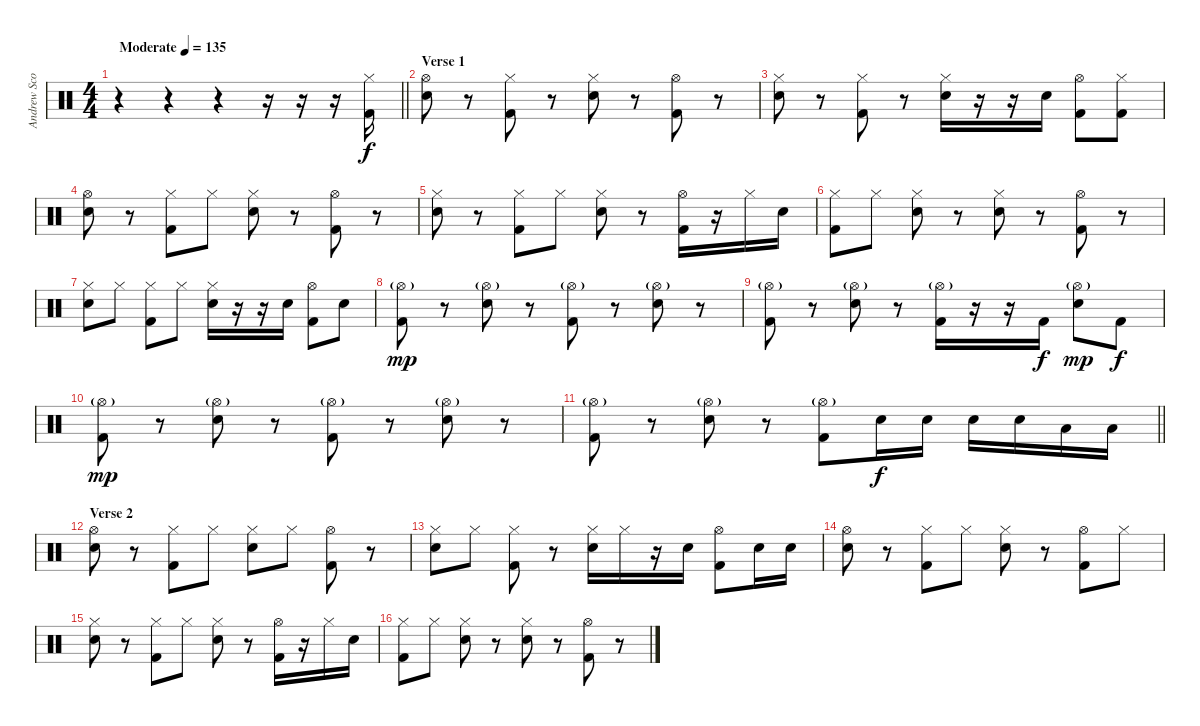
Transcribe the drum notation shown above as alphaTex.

\track ("Andrew Scott" "Andrew Sco") {instrument percussion}
\staff {score}
\articulation defaults
\ts (4 4)
\tempo (135 "Moderate")
\clef neutral
\barLineRight lightlight
\ks c
r.4{dy f} r.4 r.4 r.16 r.16 r.16 ("Hi-Hat (closed)" "Kick (hit) 2").16 |
\section ("" "Verse 1")
("Hi-Hat (open)" "Snare (hit) 2").8 r.8 ("Hi-Hat (closed)" "Kick (hit) 2").8 r.8 ("Hi-Hat (closed)" "Snare (hit) 2").8 r.8 ("Hi-Hat (open)" "Kick (hit) 2").8 r.8 |
("Hi-Hat (closed)" "Snare (hit) 2").8 r.8 ("Hi-Hat (closed)" "Kick (hit) 2").8 r.8 ("Hi-Hat (closed)" "Snare (hit) 2").16 r.16 r.16 "Snare (hit) 2".16 ("Hi-Hat (open)" "Kick (hit) 2").8 ("Hi-Hat (closed)" "Kick (hit) 2").8 |
("Hi-Hat (open)" "Snare (hit) 2").8 r.8 ("Hi-Hat (closed)" "Kick (hit) 2").8 "Hi-Hat (closed)".8 ("Hi-Hat (closed)" "Snare (hit) 2").8 r.8 ("Hi-Hat (open)" "Kick (hit) 2").8 r.8 |
("Hi-Hat (closed)" "Snare (hit) 2").8 r.8 ("Hi-Hat (closed)" "Kick (hit) 2").8 "Hi-Hat (closed)".8 ("Hi-Hat (closed)" "Snare (hit) 2").8 r.8 ("Hi-Hat (open)" "Kick (hit) 2").16 r.16 "Hi-Hat (closed)".16 "Snare (hit) 2".16 |
("Hi-Hat (closed)" "Kick (hit) 2").8 "Hi-Hat (closed)".8 ("Hi-Hat (closed)" "Snare (hit) 2").8 r.8 ("Hi-Hat (closed)" "Snare (hit) 2").8 r.8 ("Hi-Hat (open)" "Kick (hit) 2").8 r.8 |
("Hi-Hat (closed)" "Snare (hit) 2").8 "Hi-Hat (closed)".8 ("Hi-Hat (closed)" "Kick (hit) 2").8 "Hi-Hat (closed)".8 ("Hi-Hat (closed)" "Snare (hit) 2").16 r.16 r.16 "Snare (hit) 2".16 ("Hi-Hat (open)" "Kick (hit) 2").8 "Snare (hit) 2".8 |
("Hi-Hat (open)"{g} "Kick (hit) 2").8{dy mp} r.8 ("Hi-Hat (open)"{g} "Snare (hit) 2").8 r.8 ("Hi-Hat (open)"{g} "Kick (hit) 2").8 r.8 ("Hi-Hat (open)"{g} "Snare (hit) 2").8 r.8 |
("Hi-Hat (open)"{g} "Kick (hit) 2").8 r.8 ("Hi-Hat (open)"{g} "Snare (hit) 2").8 r.8 ("Hi-Hat (open)"{g} "Kick (hit) 2").16 r.16 r.16 "Kick (hit) 2".16{dy f} ("Hi-Hat (open)"{g} "Snare (hit) 2").8{dy mp} "Kick (hit) 2".8{dy f} |
("Hi-Hat (open)"{g} "Kick (hit) 2").8{dy mp} r.8 ("Hi-Hat (open)"{g} "Snare (hit) 2").8 r.8 ("Hi-Hat (open)"{g} "Kick (hit) 2").8 r.8 ("Hi-Hat (open)"{g} "Snare (hit) 2").8 r.8 |
\barLineRight lightlight
("Hi-Hat (open)"{g} "Kick (hit) 2").8 r.8 ("Hi-Hat (open)"{g} "Snare (hit) 2").8 r.8 ("Hi-Hat (open)"{g} "Kick (hit) 2").8 "Snare (hit) 2".16{dy f} "Snare (hit) 2".16 "Snare (hit) 2".16 "Snare (hit) 2".16 "Low Tom (hit)".16 "Low Tom (hit)".16 |
\section ("" "Verse 2")
("Hi-Hat (open)" "Snare (hit) 2").8 r.8 ("Hi-Hat (closed)" "Kick (hit) 2").8 "Hi-Hat (closed)".8 ("Hi-Hat (closed)" "Snare (hit) 2").8 "Hi-Hat (closed)".8 ("Hi-Hat (open)" "Kick (hit) 2").8 r.8 |
("Hi-Hat (closed)" "Snare (hit) 2").8 "Hi-Hat (closed)".8 ("Hi-Hat (closed)" "Kick (hit) 2").8 r.8 ("Hi-Hat (closed)" "Snare (hit) 2").16 "Hi-Hat (closed)".16 r.16 "Snare (hit) 2".16 ("Hi-Hat (open)" "Kick (hit) 2").8 "Snare (hit) 2".16 "Snare (hit) 2".16 |
("Hi-Hat (open)" "Snare (hit) 2").8 r.8 ("Hi-Hat (closed)" "Kick (hit) 2").8 "Hi-Hat (closed)".8 ("Hi-Hat (closed)" "Snare (hit) 2").8 r.8 ("Hi-Hat (open)" "Kick (hit) 2").8 "Hi-Hat (closed)".8 |
("Hi-Hat (closed)" "Snare (hit) 2").8 r.8 ("Hi-Hat (closed)" "Kick (hit) 2").8 "Hi-Hat (closed)".8 ("Hi-Hat (closed)" "Snare (hit) 2").8 r.8 ("Hi-Hat (open)" "Kick (hit) 2").16 r.16 "Hi-Hat (closed)".16 "Snare (hit) 2".16 |
("Hi-Hat (closed)" "Kick (hit) 2").8 "Hi-Hat (closed)".8 ("Hi-Hat (closed)" "Snare (hit) 2").8 r.8 ("Hi-Hat (closed)" "Snare (hit) 2").8 r.8 ("Hi-Hat (open)" "Kick (hit) 2").8 r.8
